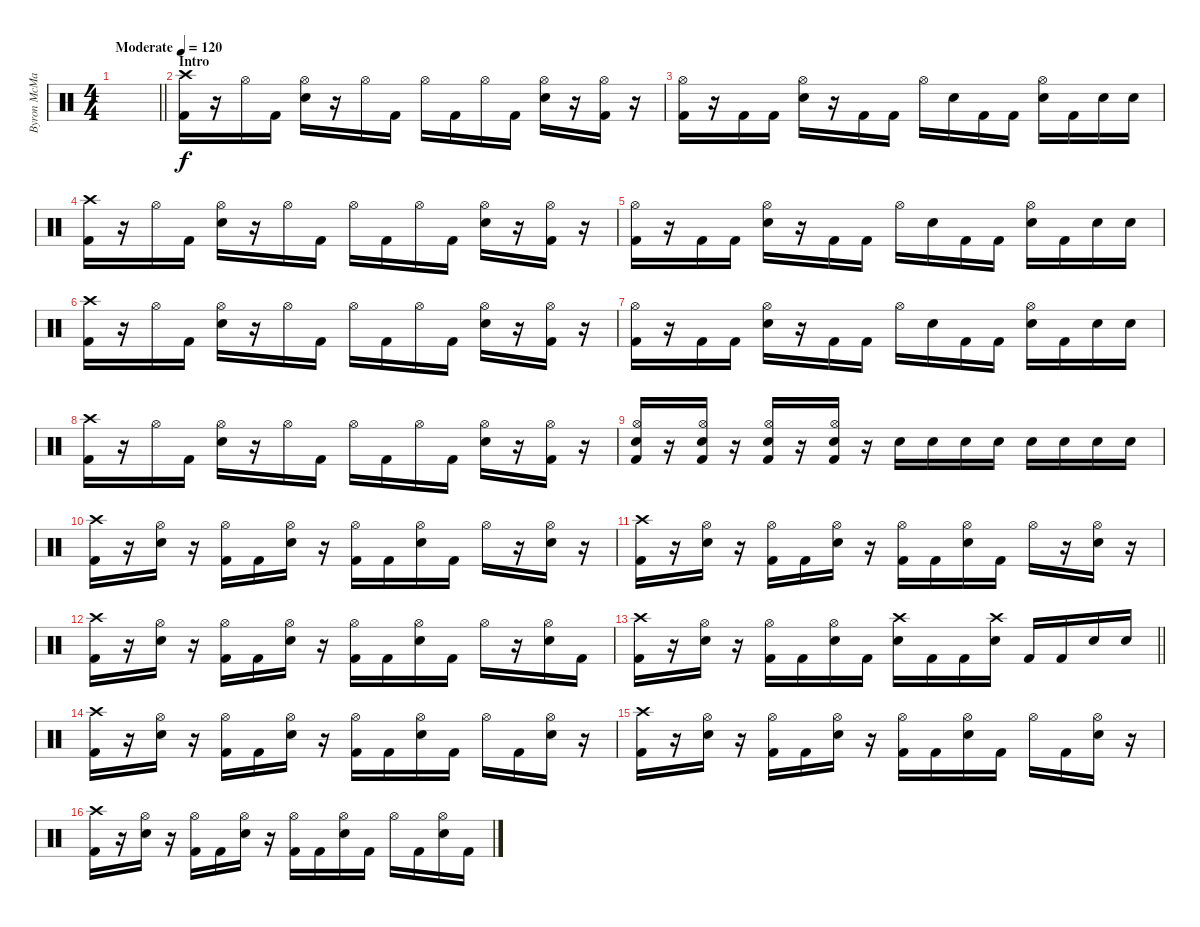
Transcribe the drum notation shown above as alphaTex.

\track ("Byron McMackin" "Byron McMa") {instrument percussion}
\staff {score}
\articulation defaults
\ts (4 4)
\tempo (120 "Moderate")
\clef neutral
\barLineRight lightlight
\ks c
|
\section ("" "Intro")
("Crash high (hit)" "Kick (hit) 2").16 r.16 "Hi-Hat (open)".16 "Kick (hit) 2".16 ("Hi-Hat (open)" "Snare (hit) 2").16 r.16 "Hi-Hat (open)".16 "Kick (hit) 2".16 "Hi-Hat (open)".16 "Kick (hit) 2".16 "Hi-Hat (open)".16 "Kick (hit) 2".16 ("Hi-Hat (open)" "Snare (hit) 2").16 r.16 ("Hi-Hat (open)" "Kick (hit) 2").16 r.16 |
("Hi-Hat (open)" "Kick (hit) 2").16 r.16 "Kick (hit) 2".16 "Kick (hit) 2".16 ("Hi-Hat (open)" "Snare (hit) 2").16 r.16 "Kick (hit) 2".16 "Kick (hit) 2".16 "Hi-Hat (open)".16 "Snare (hit) 2".16 "Kick (hit) 2".16 "Kick (hit) 2".16 ("Hi-Hat (open)" "Snare (hit) 2").16 "Kick (hit) 2".16 "Snare (hit) 2".16 "Snare (hit) 2".16 |
("Crash high (hit)" "Kick (hit) 2").16 r.16 "Hi-Hat (open)".16 "Kick (hit) 2".16 ("Hi-Hat (open)" "Snare (hit) 2").16 r.16 "Hi-Hat (open)".16 "Kick (hit) 2".16 "Hi-Hat (open)".16 "Kick (hit) 2".16 "Hi-Hat (open)".16 "Kick (hit) 2".16 ("Hi-Hat (open)" "Snare (hit) 2").16 r.16 ("Hi-Hat (open)" "Kick (hit) 2").16 r.16 |
("Hi-Hat (open)" "Kick (hit) 2").16 r.16 "Kick (hit) 2".16 "Kick (hit) 2".16 ("Hi-Hat (open)" "Snare (hit) 2").16 r.16 "Kick (hit) 2".16 "Kick (hit) 2".16 "Hi-Hat (open)".16 "Snare (hit) 2".16 "Kick (hit) 2".16 "Kick (hit) 2".16 ("Hi-Hat (open)" "Snare (hit) 2").16 "Kick (hit) 2".16 "Snare (hit) 2".16 "Snare (hit) 2".16 |
("Crash high (hit)" "Kick (hit) 2").16 r.16 "Hi-Hat (open)".16 "Kick (hit) 2".16 ("Hi-Hat (open)" "Snare (hit) 2").16 r.16 "Hi-Hat (open)".16 "Kick (hit) 2".16 "Hi-Hat (open)".16 "Kick (hit) 2".16 "Hi-Hat (open)".16 "Kick (hit) 2".16 ("Hi-Hat (open)" "Snare (hit) 2").16 r.16 ("Hi-Hat (open)" "Kick (hit) 2").16 r.16 |
("Hi-Hat (open)" "Kick (hit) 2").16 r.16 "Kick (hit) 2".16 "Kick (hit) 2".16 ("Hi-Hat (open)" "Snare (hit) 2").16 r.16 "Kick (hit) 2".16 "Kick (hit) 2".16 "Hi-Hat (open)".16 "Snare (hit) 2".16 "Kick (hit) 2".16 "Kick (hit) 2".16 ("Hi-Hat (open)" "Snare (hit) 2").16 "Kick (hit) 2".16 "Snare (hit) 2".16 "Snare (hit) 2".16 |
("Crash high (hit)" "Kick (hit) 2").16 r.16 "Hi-Hat (open)".16 "Kick (hit) 2".16 ("Hi-Hat (open)" "Snare (hit) 2").16 r.16 "Hi-Hat (open)".16 "Kick (hit) 2".16 "Hi-Hat (open)".16 "Kick (hit) 2".16 "Hi-Hat (open)".16 "Kick (hit) 2".16 ("Hi-Hat (open)" "Snare (hit) 2").16 r.16 ("Hi-Hat (open)" "Kick (hit) 2").16 r.16 |
("Hi-Hat (open)" "Snare (hit) 2" "Kick (hit) 2").16 r.16 ("Hi-Hat (open)" "Snare (hit) 2" "Kick (hit) 2").16 r.16 ("Hi-Hat (open)" "Snare (hit) 2" "Kick (hit) 2").16 r.16 ("Hi-Hat (open)" "Snare (hit) 2" "Kick (hit) 2").16 r.16 "Snare (hit) 2".16 "Snare (hit) 2".16 "Snare (hit) 2".16 "Snare (hit) 2".16 "Snare (hit) 2".16 "Snare (hit) 2".16 "Snare (hit) 2".16 "Snare (hit) 2".16 |
("Crash high (hit)" "Kick (hit) 2").16 r.16 ("Hi-Hat (open)" "Snare (hit) 2").16 r.16 ("Hi-Hat (open)" "Kick (hit) 2").16 "Kick (hit) 2".16 ("Hi-Hat (open)" "Snare (hit) 2").16 r.16 ("Hi-Hat (open)" "Kick (hit) 2").16 "Kick (hit) 2".16 ("Hi-Hat (open)" "Snare (hit) 2").16 "Kick (hit) 2".16 "Hi-Hat (open)".16 r.16 ("Hi-Hat (open)" "Snare (hit) 2").16 r.16 |
("Crash high (hit)" "Kick (hit) 2").16 r.16 ("Hi-Hat (open)" "Snare (hit) 2").16 r.16 ("Hi-Hat (open)" "Kick (hit) 2").16 "Kick (hit) 2".16 ("Hi-Hat (open)" "Snare (hit) 2").16 r.16 ("Hi-Hat (open)" "Kick (hit) 2").16 "Kick (hit) 2".16 ("Hi-Hat (open)" "Snare (hit) 2").16 "Kick (hit) 2".16 "Hi-Hat (open)".16 r.16 ("Hi-Hat (open)" "Snare (hit) 2").16 r.16 |
("Crash high (hit)" "Kick (hit) 2").16 r.16 ("Hi-Hat (open)" "Snare (hit) 2").16 r.16 ("Hi-Hat (open)" "Kick (hit) 2").16 "Kick (hit) 2".16 ("Hi-Hat (open)" "Snare (hit) 2").16 r.16 ("Hi-Hat (open)" "Kick (hit) 2").16 "Kick (hit) 2".16 ("Hi-Hat (open)" "Snare (hit) 2").16 "Kick (hit) 2".16 "Hi-Hat (open)".16 r.16 ("Hi-Hat (open)" "Snare (hit) 2").16 "Kick (hit) 2".16 |
\barLineRight lightlight
("Crash high (hit)" "Kick (hit) 2").16 r.16 ("Hi-Hat (open)" "Snare (hit) 2").16 r.16 ("Hi-Hat (open)" "Kick (hit) 2").16 "Kick (hit) 2".16 ("Hi-Hat (open)" "Snare (hit) 2").16 "Kick (hit) 2".16 ("Crash high (hit)" "Snare (hit) 2").16 "Kick (hit) 2".16 "Kick (hit) 2".16 ("Crash high (hit)" "Snare (hit) 2").16 "Kick (hit) 2".16 "Kick (hit) 2".16 "Snare (hit) 2".16 "Snare (hit) 2".16 |
("Crash high (hit)" "Kick (hit) 2").16 r.16 ("Hi-Hat (open)" "Snare (hit) 2").16 r.16 ("Hi-Hat (open)" "Kick (hit) 2").16 "Kick (hit) 2".16 ("Hi-Hat (open)" "Snare (hit) 2").16 r.16 ("Hi-Hat (open)" "Kick (hit) 2").16 "Kick (hit) 2".16 ("Hi-Hat (open)" "Snare (hit) 2").16 "Kick (hit) 2".16 "Hi-Hat (open)".16 "Kick (hit) 2".16 ("Hi-Hat (open)" "Snare (hit) 2").16 r.16 |
("Crash high (hit)" "Kick (hit) 2").16 r.16 ("Hi-Hat (open)" "Snare (hit) 2").16 r.16 ("Hi-Hat (open)" "Kick (hit) 2").16 "Kick (hit) 2".16 ("Hi-Hat (open)" "Snare (hit) 2").16 r.16 ("Hi-Hat (open)" "Kick (hit) 2").16 "Kick (hit) 2".16 ("Hi-Hat (open)" "Snare (hit) 2").16 "Kick (hit) 2".16 "Hi-Hat (open)".16 "Kick (hit) 2".16 ("Hi-Hat (open)" "Snare (hit) 2").16 r.16 |
("Crash high (hit)" "Kick (hit) 2").16 r.16 ("Hi-Hat (open)" "Snare (hit) 2").16 r.16 ("Hi-Hat (open)" "Kick (hit) 2").16 "Kick (hit) 2".16 ("Hi-Hat (open)" "Snare (hit) 2").16 r.16 ("Hi-Hat (open)" "Kick (hit) 2").16 "Kick (hit) 2".16 ("Hi-Hat (open)" "Snare (hit) 2").16 "Kick (hit) 2".16 "Hi-Hat (open)".16 "Kick (hit) 2".16 ("Hi-Hat (open)" "Snare (hit) 2").16 "Kick (hit) 2".16
